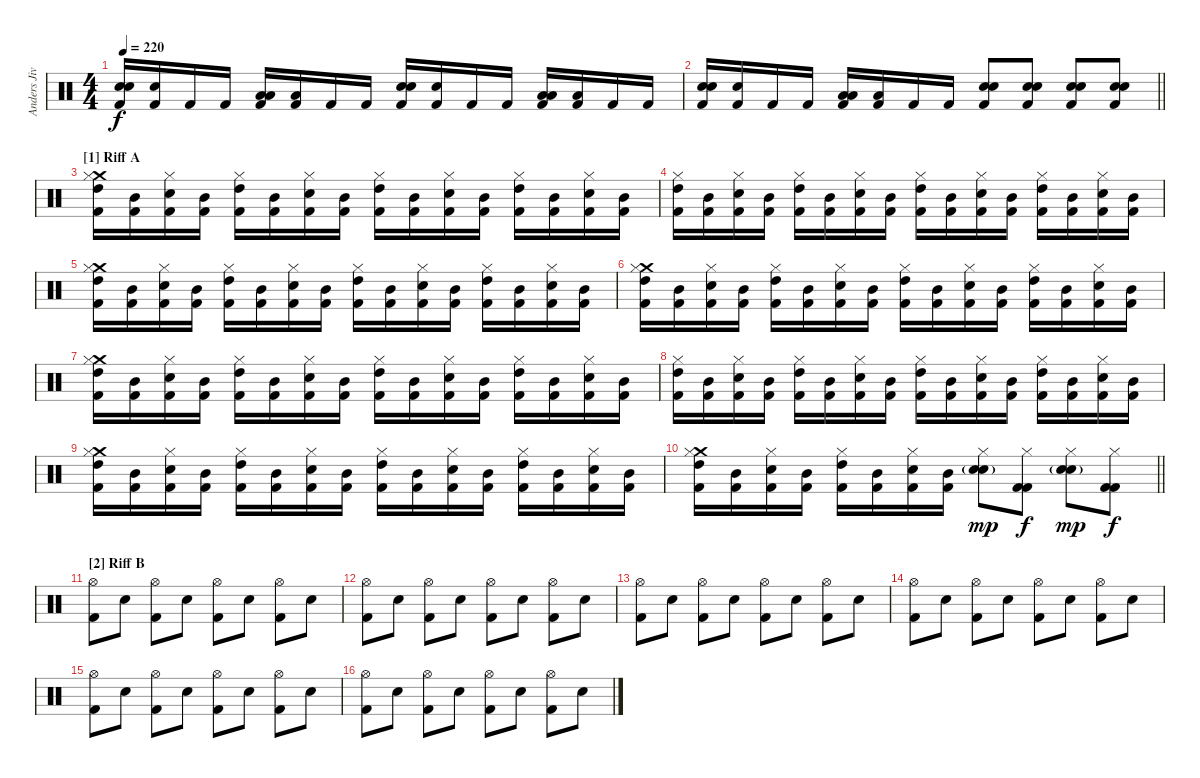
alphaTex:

\track ("Anders Jivarp" "Anders Jiv") {instrument percussion}
\staff {score}
\articulation defaults
\ts (4 4)
\tempo 220
\clef neutral
\ks c
("Electric Snare (hit)" "Snare (hit) 2" "Kick (hit) 2").16{dy f} ("Snare (hit) 2" "Kick (hit) 2").16 "Kick (hit) 2".16 "Kick (hit) 2".16 ("Low Floor Tom (hit)" "Low Tom (hit)" "Kick (hit) 2").16 ("Low Tom (hit)" "Kick (hit) 2").16 "Kick (hit) 2".16 "Kick (hit) 2".16 ("Electric Snare (hit)" "Snare (hit) 2" "Kick (hit) 2").16 ("Snare (hit) 2" "Kick (hit) 2").16 "Kick (hit) 2".16 "Kick (hit) 2".16 ("Low Floor Tom (hit)" "Low Tom (hit)" "Kick (hit) 2").16 ("Low Tom (hit)" "Kick (hit) 2").16 "Kick (hit) 2".16 "Kick (hit) 2".16 |
\barLineRight lightlight
("Electric Snare (hit)" "Snare (hit) 2" "Kick (hit) 2").16 ("Snare (hit) 2" "Kick (hit) 2").16 "Kick (hit) 2".16 "Kick (hit) 2".16 ("Low Floor Tom (hit)" "Low Tom (hit)" "Kick (hit) 2").16 ("Low Tom (hit)" "Kick (hit) 2").16 "Kick (hit) 2".16 "Kick (hit) 2".16 ("Snare (hit) 2" "Electric Snare (hit)" "Kick (hit) 2").8 ("Snare (hit) 2" "Electric Snare (hit)" "Kick (hit) 2").8 ("Snare (hit) 2" "Electric Snare (hit)" "Kick (hit) 2").8 ("Snare (hit) 2" "Electric Snare (hit)" "Kick (hit) 2").8 |
\section ("" "[1] Riff A")
("Crash medium (hit)" "Hi-Hat (closed)" "High Tom (hit)" "Kick (hit) 2").16 ("Mid Tom (hit)" "Kick (hit) 2").16 ("Hi-Hat (closed)" "Electric Snare (hit)" "Kick (hit) 2").16 ("Mid Tom (hit)" "Kick (hit) 2").16 ("Hi-Hat (closed)" "High Tom (hit)" "Kick (hit) 2").16 ("Mid Tom (hit)" "Kick (hit) 2").16 ("Hi-Hat (closed)" "Electric Snare (hit)" "Kick (hit) 2").16 ("Mid Tom (hit)" "Kick (hit) 2").16 ("Hi-Hat (closed)" "High Tom (hit)" "Kick (hit) 2").16 ("Mid Tom (hit)" "Kick (hit) 2").16 ("Hi-Hat (closed)" "Electric Snare (hit)" "Kick (hit) 2").16 ("Mid Tom (hit)" "Kick (hit) 2").16 ("Hi-Hat (closed)" "High Tom (hit)" "Kick (hit) 2").16 ("Mid Tom (hit)" "Kick (hit) 2").16 ("Hi-Hat (closed)" "Electric Snare (hit)" "Kick (hit) 2").16 ("Mid Tom (hit)" "Kick (hit) 2").16 |
("Hi-Hat (closed)" "High Tom (hit)" "Kick (hit) 2").16 ("Mid Tom (hit)" "Kick (hit) 2").16 ("Hi-Hat (closed)" "Electric Snare (hit)" "Kick (hit) 2").16 ("Mid Tom (hit)" "Kick (hit) 2").16 ("Hi-Hat (closed)" "High Tom (hit)" "Kick (hit) 2").16 ("Mid Tom (hit)" "Kick (hit) 2").16 ("Hi-Hat (closed)" "Electric Snare (hit)" "Kick (hit) 2").16 ("Mid Tom (hit)" "Kick (hit) 2").16 ("Hi-Hat (closed)" "High Tom (hit)" "Kick (hit) 2").16 ("Mid Tom (hit)" "Kick (hit) 2").16 ("Hi-Hat (closed)" "Electric Snare (hit)" "Kick (hit) 2").16 ("Mid Tom (hit)" "Kick (hit) 2").16 ("Hi-Hat (closed)" "High Tom (hit)" "Kick (hit) 2").16 ("Mid Tom (hit)" "Kick (hit) 2").16 ("Hi-Hat (closed)" "Electric Snare (hit)" "Kick (hit) 2").16 ("Mid Tom (hit)" "Kick (hit) 2").16 |
("Crash medium (hit)" "Hi-Hat (closed)" "High Tom (hit)" "Kick (hit) 2").16 ("Mid Tom (hit)" "Kick (hit) 2").16 ("Hi-Hat (closed)" "Electric Snare (hit)" "Kick (hit) 2").16 ("Mid Tom (hit)" "Kick (hit) 2").16 ("Hi-Hat (closed)" "High Tom (hit)" "Kick (hit) 2").16 ("Mid Tom (hit)" "Kick (hit) 2").16 ("Hi-Hat (closed)" "Electric Snare (hit)" "Kick (hit) 2").16 ("Mid Tom (hit)" "Kick (hit) 2").16 ("Hi-Hat (closed)" "High Tom (hit)" "Kick (hit) 2").16 ("Mid Tom (hit)" "Kick (hit) 2").16 ("Hi-Hat (closed)" "Electric Snare (hit)" "Kick (hit) 2").16 ("Mid Tom (hit)" "Kick (hit) 2").16 ("Hi-Hat (closed)" "High Tom (hit)" "Kick (hit) 2").16 ("Mid Tom (hit)" "Kick (hit) 2").16 ("Hi-Hat (closed)" "Electric Snare (hit)" "Kick (hit) 2").16 ("Mid Tom (hit)" "Kick (hit) 2").16 |
("Crash medium (hit)" "Hi-Hat (closed)" "High Tom (hit)" "Kick (hit) 2").16 ("Mid Tom (hit)" "Kick (hit) 2").16 ("Hi-Hat (closed)" "Electric Snare (hit)" "Kick (hit) 2").16 ("Mid Tom (hit)" "Kick (hit) 2").16 ("Hi-Hat (closed)" "High Tom (hit)" "Kick (hit) 2").16 ("Mid Tom (hit)" "Kick (hit) 2").16 ("Hi-Hat (closed)" "Electric Snare (hit)" "Kick (hit) 2").16 ("Mid Tom (hit)" "Kick (hit) 2").16 ("Hi-Hat (closed)" "High Tom (hit)" "Kick (hit) 2").16 ("Mid Tom (hit)" "Kick (hit) 2").16 ("Hi-Hat (closed)" "Electric Snare (hit)" "Kick (hit) 2").16 ("Mid Tom (hit)" "Kick (hit) 2").16 ("Hi-Hat (closed)" "High Tom (hit)" "Kick (hit) 2").16 ("Mid Tom (hit)" "Kick (hit) 2").16 ("Hi-Hat (closed)" "Electric Snare (hit)" "Kick (hit) 2").16 ("Mid Tom (hit)" "Kick (hit) 2").16 |
("Crash medium (hit)" "Hi-Hat (closed)" "High Tom (hit)" "Kick (hit) 2").16 ("Mid Tom (hit)" "Kick (hit) 2").16 ("Hi-Hat (closed)" "Electric Snare (hit)" "Kick (hit) 2").16 ("Mid Tom (hit)" "Kick (hit) 2").16 ("Hi-Hat (closed)" "High Tom (hit)" "Kick (hit) 2").16 ("Mid Tom (hit)" "Kick (hit) 2").16 ("Hi-Hat (closed)" "Electric Snare (hit)" "Kick (hit) 2").16 ("Mid Tom (hit)" "Kick (hit) 2").16 ("Hi-Hat (closed)" "High Tom (hit)" "Kick (hit) 2").16 ("Mid Tom (hit)" "Kick (hit) 2").16 ("Hi-Hat (closed)" "Electric Snare (hit)" "Kick (hit) 2").16 ("Mid Tom (hit)" "Kick (hit) 2").16 ("Hi-Hat (closed)" "High Tom (hit)" "Kick (hit) 2").16 ("Mid Tom (hit)" "Kick (hit) 2").16 ("Hi-Hat (closed)" "Electric Snare (hit)" "Kick (hit) 2").16 ("Mid Tom (hit)" "Kick (hit) 2").16 |
("Hi-Hat (closed)" "High Tom (hit)" "Kick (hit) 2").16 ("Mid Tom (hit)" "Kick (hit) 2").16 ("Hi-Hat (closed)" "Electric Snare (hit)" "Kick (hit) 2").16 ("Mid Tom (hit)" "Kick (hit) 2").16 ("Hi-Hat (closed)" "High Tom (hit)" "Kick (hit) 2").16 ("Mid Tom (hit)" "Kick (hit) 2").16 ("Hi-Hat (closed)" "Electric Snare (hit)" "Kick (hit) 2").16 ("Mid Tom (hit)" "Kick (hit) 2").16 ("Hi-Hat (closed)" "High Tom (hit)" "Kick (hit) 2").16 ("Mid Tom (hit)" "Kick (hit) 2").16 ("Hi-Hat (closed)" "Electric Snare (hit)" "Kick (hit) 2").16 ("Mid Tom (hit)" "Kick (hit) 2").16 ("Hi-Hat (closed)" "High Tom (hit)" "Kick (hit) 2").16 ("Mid Tom (hit)" "Kick (hit) 2").16 ("Hi-Hat (closed)" "Electric Snare (hit)" "Kick (hit) 2").16 ("Mid Tom (hit)" "Kick (hit) 2").16 |
("Crash medium (hit)" "Hi-Hat (closed)" "High Tom (hit)" "Kick (hit) 2").16 ("Mid Tom (hit)" "Kick (hit) 2").16 ("Hi-Hat (closed)" "Electric Snare (hit)" "Kick (hit) 2").16 ("Mid Tom (hit)" "Kick (hit) 2").16 ("Hi-Hat (closed)" "High Tom (hit)" "Kick (hit) 2").16 ("Mid Tom (hit)" "Kick (hit) 2").16 ("Hi-Hat (closed)" "Electric Snare (hit)" "Kick (hit) 2").16 ("Mid Tom (hit)" "Kick (hit) 2").16 ("Hi-Hat (closed)" "High Tom (hit)" "Kick (hit) 2").16 ("Mid Tom (hit)" "Kick (hit) 2").16 ("Hi-Hat (closed)" "Electric Snare (hit)" "Kick (hit) 2").16 ("Mid Tom (hit)" "Kick (hit) 2").16 ("Hi-Hat (closed)" "High Tom (hit)" "Kick (hit) 2").16 ("Mid Tom (hit)" "Kick (hit) 2").16 ("Hi-Hat (closed)" "Electric Snare (hit)" "Kick (hit) 2").16 ("Mid Tom (hit)" "Kick (hit) 2").16 |
\barLineRight lightlight
("Crash medium (hit)" "Hi-Hat (closed)" "High Tom (hit)" "Kick (hit) 2").16 ("Mid Tom (hit)" "Kick (hit) 2").16 ("Hi-Hat (closed)" "Electric Snare (hit)" "Kick (hit) 2").16 ("Mid Tom (hit)" "Kick (hit) 2").16 ("Hi-Hat (closed)" "High Tom (hit)" "Kick (hit) 2").16 ("Mid Tom (hit)" "Kick (hit) 2").16 ("Hi-Hat (closed)" "Electric Snare (hit)" "Kick (hit) 2").16 ("Mid Tom (hit)" "Kick (hit) 2").16 ("Hi-Hat (closed)" "Electric Snare (hit)"{g} "Snare (hit) 2").8{dy mp} ("Hi-Hat (closed)" "Kick (hit) 2" "Kick (hit) 2").8{dy f} ("Hi-Hat (closed)" "Electric Snare (hit)"{g} "Snare (hit) 2").8{dy mp} ("Hi-Hat (closed)" "Kick (hit) 2" "Kick (hit) 2").8{dy f} |
\section ("" "[2] Riff B")
("Hi-Hat (open)" "Kick (hit) 2").8 "Snare (hit) 2".8 ("Hi-Hat (open)" "Kick (hit) 2").8 "Snare (hit) 2".8 ("Hi-Hat (open)" "Kick (hit) 2").8 "Snare (hit) 2".8 ("Hi-Hat (open)" "Kick (hit) 2").8 "Snare (hit) 2".8 |
("Hi-Hat (open)" "Kick (hit) 2").8 "Snare (hit) 2".8 ("Hi-Hat (open)" "Kick (hit) 2").8 "Snare (hit) 2".8 ("Hi-Hat (open)" "Kick (hit) 2").8 "Snare (hit) 2".8 ("Hi-Hat (open)" "Kick (hit) 2").8 "Snare (hit) 2".8 |
("Hi-Hat (open)" "Kick (hit) 2").8 "Snare (hit) 2".8 ("Hi-Hat (open)" "Kick (hit) 2").8 "Snare (hit) 2".8 ("Hi-Hat (open)" "Kick (hit) 2").8 "Snare (hit) 2".8 ("Hi-Hat (open)" "Kick (hit) 2").8 "Snare (hit) 2".8 |
("Hi-Hat (open)" "Kick (hit) 2").8 "Snare (hit) 2".8 ("Hi-Hat (open)" "Kick (hit) 2").8 "Snare (hit) 2".8 ("Hi-Hat (open)" "Kick (hit) 2").8 "Snare (hit) 2".8 ("Hi-Hat (open)" "Kick (hit) 2").8 "Snare (hit) 2".8 |
("Hi-Hat (open)" "Kick (hit) 2").8 "Snare (hit) 2".8 ("Hi-Hat (open)" "Kick (hit) 2").8 "Snare (hit) 2".8 ("Hi-Hat (open)" "Kick (hit) 2").8 "Snare (hit) 2".8 ("Hi-Hat (open)" "Kick (hit) 2").8 "Snare (hit) 2".8 |
("Hi-Hat (open)" "Kick (hit) 2").8 "Snare (hit) 2".8 ("Hi-Hat (open)" "Kick (hit) 2").8 "Snare (hit) 2".8 ("Hi-Hat (open)" "Kick (hit) 2").8 "Snare (hit) 2".8 ("Hi-Hat (open)" "Kick (hit) 2").8 "Snare (hit) 2".8
